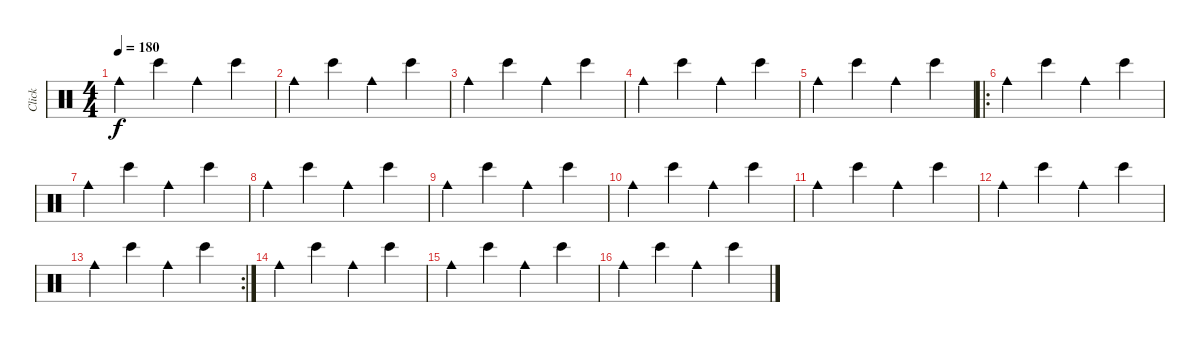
\track ("Click" "Click") {instrument percussion}
\staff {score}
\articulation defaults
\ts (4 4)
\tempo 180
\clef neutral
\ks c "Cowbell medium (hit)".4{dy f} "Bongo High (hit)".4 "Cowbell medium (hit)".4 "Bongo High (hit)".4
|
"Cowbell medium (hit)".4 "Bongo High (hit)".4 "Cowbell medium (hit)".4 "Bongo High (hit)".4 |
"Cowbell medium (hit)".4 "Bongo High (hit)".4 "Cowbell medium (hit)".4 "Bongo High (hit)".4 |
"Cowbell medium (hit)".4 "Bongo High (hit)".4 "Cowbell medium (hit)".4 "Bongo High (hit)".4 |
"Cowbell medium (hit)".4 "Bongo High (hit)".4 "Cowbell medium (hit)".4 "Bongo High (hit)".4 |
\ro "Cowbell medium (hit)".4 "Bongo High (hit)".4 "Cowbell medium (hit)".4 "Bongo High (hit)".4
|
"Cowbell medium (hit)".4 "Bongo High (hit)".4 "Cowbell medium (hit)".4 "Bongo High (hit)".4 |
"Cowbell medium (hit)".4 "Bongo High (hit)".4 "Cowbell medium (hit)".4 "Bongo High (hit)".4 |
"Cowbell medium (hit)".4 "Bongo High (hit)".4 "Cowbell medium (hit)".4 "Bongo High (hit)".4 |
"Cowbell medium (hit)".4 "Bongo High (hit)".4 "Cowbell medium (hit)".4 "Bongo High (hit)".4 |
"Cowbell medium (hit)".4 "Bongo High (hit)".4 "Cowbell medium (hit)".4 "Bongo High (hit)".4 |
"Cowbell medium (hit)".4 "Bongo High (hit)".4 "Cowbell medium (hit)".4 "Bongo High (hit)".4 |
\rc 2 "Cowbell medium (hit)".4 "Bongo High (hit)".4 "Cowbell medium (hit)".4 "Bongo High (hit)".4
|
"Cowbell medium (hit)".4 "Bongo High (hit)".4 "Cowbell medium (hit)".4 "Bongo High (hit)".4 |
"Cowbell medium (hit)".4 "Bongo High (hit)".4 "Cowbell medium (hit)".4 "Bongo High (hit)".4 |
"Cowbell medium (hit)".4 "Bongo High (hit)".4 "Cowbell medium (hit)".4 "Bongo High (hit)".4
